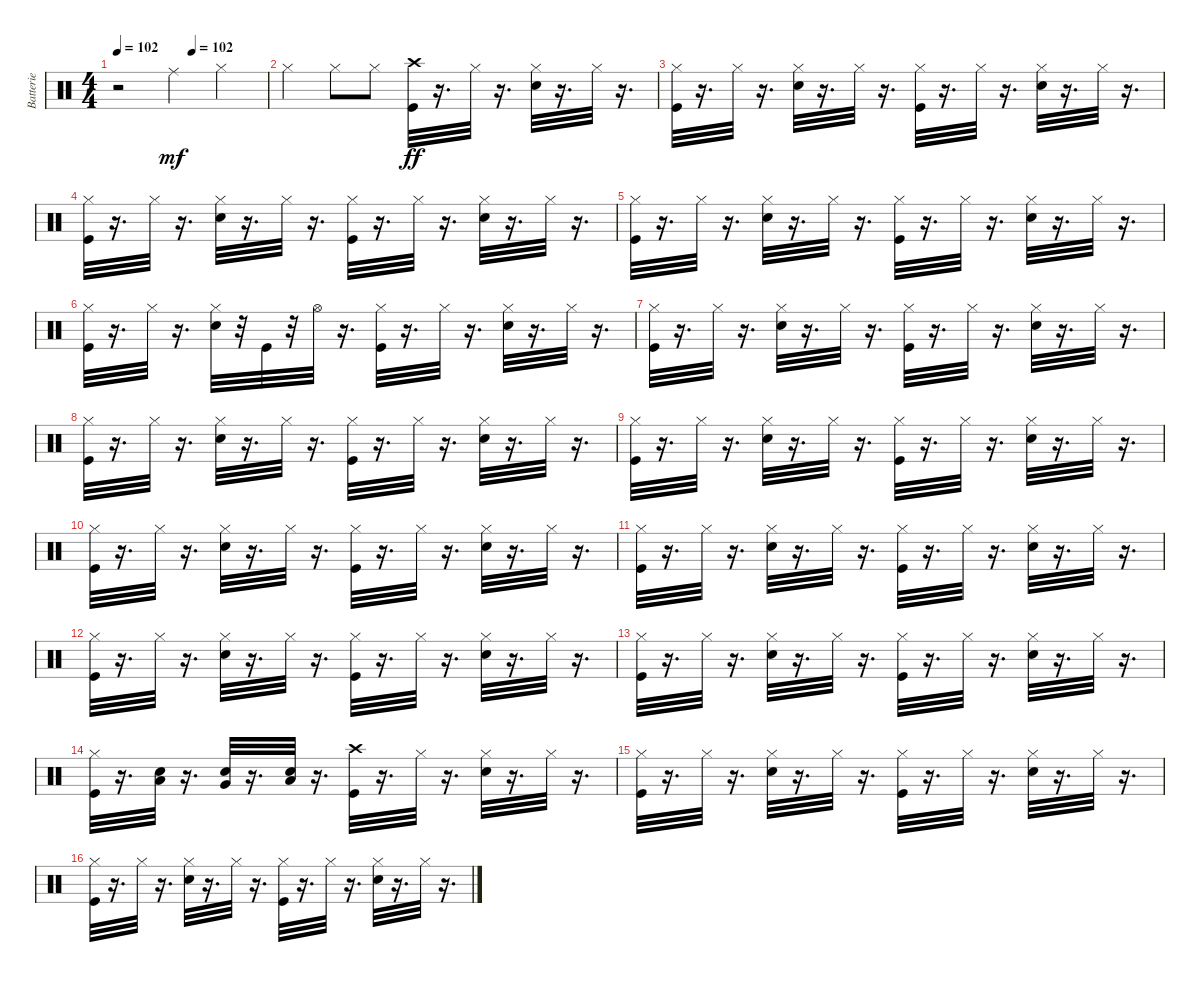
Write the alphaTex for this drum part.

\track ("Batterie" "Batterie") {instrument percussion}
\staff {score}
\articulation defaults
\ts (4 4)
\tempo 102
\tempo (102 0.5)
\clef neutral
\ks c
r.2{dy mf} "Ride (middle)".4 "Hi-Hat (closed)".4 |
"Hi-Hat (closed)".4 "Hi-Hat (closed)".8 "Hi-Hat (closed)".8 ("Kick (hit)" "Crash high (hit)").32{dy ff} r.16{d} "Hi-Hat (closed)".32 r.16{d} ("Hi-Hat (closed)" "Electric Snare (hit)").32 r.16{d} "Hi-Hat (closed)".32 r.16{d} |
("Kick (hit)" "Hi-Hat (closed)").32 r.16{d} "Hi-Hat (closed)".32 r.16{d} ("Hi-Hat (closed)" "Electric Snare (hit)").32 r.16{d} "Hi-Hat (closed)".32 r.16{d} ("Kick (hit)" "Hi-Hat (closed)").32 r.16{d} "Hi-Hat (closed)".32 r.16{d} ("Hi-Hat (closed)" "Electric Snare (hit)").32 r.16{d} "Hi-Hat (closed)".32 r.16{d} |
("Kick (hit)" "Hi-Hat (closed)").32 r.16{d} "Hi-Hat (closed)".32 r.16{d} ("Hi-Hat (closed)" "Electric Snare (hit)").32 r.16{d} "Hi-Hat (closed)".32 r.16{d} ("Kick (hit)" "Hi-Hat (closed)").32 r.16{d} "Hi-Hat (closed)".32 r.16{d} ("Hi-Hat (closed)" "Electric Snare (hit)").32 r.16{d} "Hi-Hat (closed)".32 r.16{d} |
("Kick (hit)" "Hi-Hat (closed)").32 r.16{d} "Hi-Hat (closed)".32 r.16{d} ("Hi-Hat (closed)" "Electric Snare (hit)").32 r.16{d} "Hi-Hat (closed)".32 r.16{d} ("Kick (hit)" "Hi-Hat (closed)").32 r.16{d} "Hi-Hat (closed)".32 r.16{d} ("Hi-Hat (closed)" "Electric Snare (hit)").32 r.16{d} "Hi-Hat (closed)".32 r.16{d} |
("Kick (hit)" "Hi-Hat (closed)").32 r.16{d} "Hi-Hat (closed)".32 r.16{d} ("Hi-Hat (closed)" "Electric Snare (hit)").32 r.32 "Kick (hit)".32 r.32 "Hi-Hat (open)".32 r.16{d} ("Kick (hit)" "Hi-Hat (closed)").32 r.16{d} "Hi-Hat (closed)".32 r.16{d} ("Hi-Hat (closed)" "Electric Snare (hit)").32 r.16{d} "Hi-Hat (closed)".32 r.16{d} |
("Kick (hit)" "Hi-Hat (closed)").32 r.16{d} "Hi-Hat (closed)".32 r.16{d} ("Hi-Hat (closed)" "Electric Snare (hit)").32 r.16{d} "Hi-Hat (closed)".32 r.16{d} ("Kick (hit)" "Hi-Hat (closed)").32 r.16{d} "Hi-Hat (closed)".32 r.16{d} ("Hi-Hat (closed)" "Electric Snare (hit)").32 r.16{d} "Hi-Hat (closed)".32 r.16{d} |
("Kick (hit)" "Hi-Hat (closed)").32 r.16{d} "Hi-Hat (closed)".32 r.16{d} ("Hi-Hat (closed)" "Electric Snare (hit)").32 r.16{d} "Hi-Hat (closed)".32 r.16{d} ("Kick (hit)" "Hi-Hat (closed)").32 r.16{d} "Hi-Hat (closed)".32 r.16{d} ("Hi-Hat (closed)" "Electric Snare (hit)").32 r.16{d} "Hi-Hat (closed)".32 r.16{d} |
("Kick (hit)" "Hi-Hat (closed)").32 r.16{d} "Hi-Hat (closed)".32 r.16{d} ("Hi-Hat (closed)" "Electric Snare (hit)").32 r.16{d} "Hi-Hat (closed)".32 r.16{d} ("Kick (hit)" "Hi-Hat (closed)").32 r.16{d} "Hi-Hat (closed)".32 r.16{d} ("Hi-Hat (closed)" "Electric Snare (hit)").32 r.16{d} "Hi-Hat (closed)".32 r.16{d} |
("Kick (hit)" "Hi-Hat (closed)").32 r.16{d} "Hi-Hat (closed)".32 r.16{d} ("Hi-Hat (closed)" "Electric Snare (hit)").32 r.16{d} "Hi-Hat (closed)".32 r.16{d} ("Kick (hit)" "Hi-Hat (closed)").32 r.16{d} "Hi-Hat (closed)".32 r.16{d} ("Hi-Hat (closed)" "Electric Snare (hit)").32 r.16{d} "Hi-Hat (closed)".32 r.16{d} |
("Kick (hit)" "Hi-Hat (closed)").32 r.16{d} "Hi-Hat (closed)".32 r.16{d} ("Hi-Hat (closed)" "Electric Snare (hit)").32 r.16{d} "Hi-Hat (closed)".32 r.16{d} ("Kick (hit)" "Hi-Hat (closed)").32 r.16{d} "Hi-Hat (closed)".32 r.16{d} ("Hi-Hat (closed)" "Electric Snare (hit)").32 r.16{d} "Hi-Hat (closed)".32 r.16{d} |
("Kick (hit)" "Hi-Hat (closed)").32 r.16{d} "Hi-Hat (closed)".32 r.16{d} ("Hi-Hat (closed)" "Electric Snare (hit)").32 r.16{d} "Hi-Hat (closed)".32 r.16{d} ("Kick (hit)" "Hi-Hat (closed)").32 r.16{d} "Hi-Hat (closed)".32 r.16{d} ("Hi-Hat (closed)" "Electric Snare (hit)").32 r.16{d} "Hi-Hat (closed)".32 r.16{d} |
("Kick (hit)" "Hi-Hat (closed)").32 r.16{d} "Hi-Hat (closed)".32 r.16{d} ("Hi-Hat (closed)" "Electric Snare (hit)").32 r.16{d} "Hi-Hat (closed)".32 r.16{d} ("Kick (hit)" "Hi-Hat (closed)").32 r.16{d} "Hi-Hat (closed)".32 r.16{d} ("Hi-Hat (closed)" "Electric Snare (hit)").32 r.16{d} "Hi-Hat (closed)".32 r.16{d} |
("Kick (hit)" "Hi-Hat (closed)").32 r.16{d} ("Low Tom (hit)" "Electric Snare (hit)").32 r.16{d} ("Very Low Tom (hit)" "Electric Snare (hit)").32 r.16{d} ("Low Floor Tom (hit)" "Electric Snare (hit)").32 r.16{d} ("Kick (hit)" "Crash high (hit)").32 r.16{d} "Hi-Hat (closed)".32 r.16{d} ("Hi-Hat (closed)" "Electric Snare (hit)").32 r.16{d} "Hi-Hat (closed)".32 r.16{d} |
("Kick (hit)" "Hi-Hat (closed)").32 r.16{d} "Hi-Hat (closed)".32 r.16{d} ("Hi-Hat (closed)" "Electric Snare (hit)").32 r.16{d} "Hi-Hat (closed)".32 r.16{d} ("Kick (hit)" "Hi-Hat (closed)").32 r.16{d} "Hi-Hat (closed)".32 r.16{d} ("Hi-Hat (closed)" "Electric Snare (hit)").32 r.16{d} "Hi-Hat (closed)".32 r.16{d} |
("Kick (hit)" "Hi-Hat (closed)").32 r.16{d} "Hi-Hat (closed)".32 r.16{d} ("Hi-Hat (closed)" "Electric Snare (hit)").32 r.16{d} "Hi-Hat (closed)".32 r.16{d} ("Kick (hit)" "Hi-Hat (closed)").32 r.16{d} "Hi-Hat (closed)".32 r.16{d} ("Hi-Hat (closed)" "Electric Snare (hit)").32 r.16{d} "Hi-Hat (closed)".32 r.16{d}
